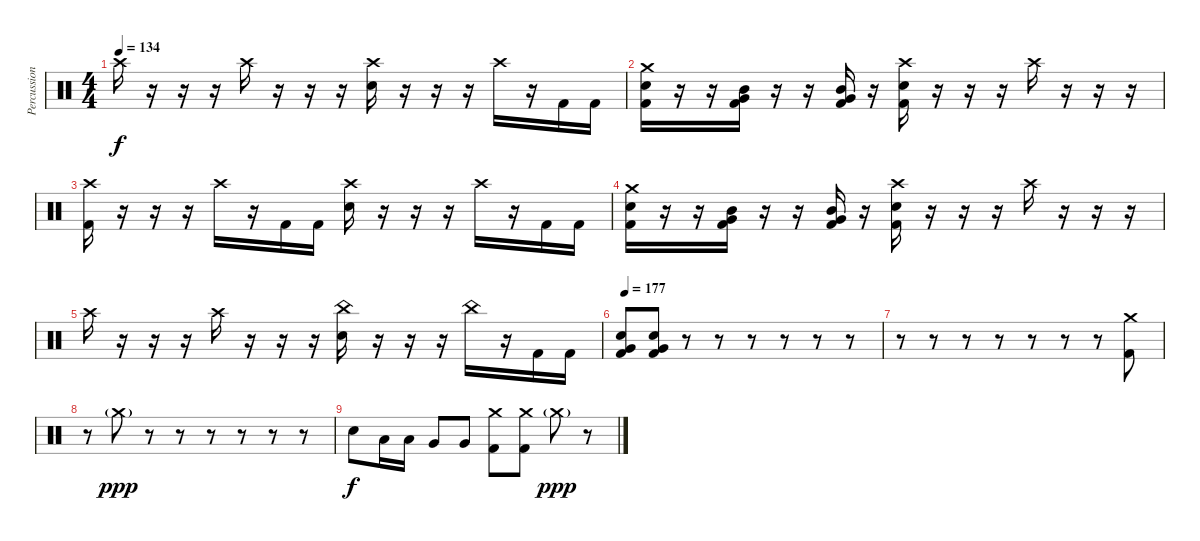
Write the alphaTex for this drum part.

\track ("Percussion" "Percussion") {instrument percussion}
\staff {score}
\articulation defaults
\ts (4 4)
\tempo 134
\clef neutral
\ks c "Crash high (hit)".16{dy f}
r.16 r.16 r.16 "Crash high (hit)".16 r.16 r.16 r.16 ("Crash high (hit)" "Snare (hit) 2").16 r.16 r.16 r.16 "Crash high (hit)".16 r.16 "Kick (hit) 2".16 "Kick (hit) 2".16 |
("Crash medium (hit)" "Snare (hit) 2" "Kick (hit) 2").16 r.16 r.16 ("Mid Tom (hit)" "Very Low Tom (hit)" "Kick (hit) 2").16 r.16 r.16 ("Mid Tom (hit)" "Very Low Tom (hit)" "Kick (hit) 2").16 r.16 ("Crash high (hit)" "Snare (hit) 2" "Kick (hit) 2").16 r.16 r.16 r.16 "Crash high (hit)".16 r.16 r.16 r.16 |
("Crash high (hit)" "Kick (hit) 2").16 r.16 r.16 r.16 "Crash high (hit)".16 r.16 "Kick (hit) 2".16 "Kick (hit) 2".16 ("Crash high (hit)" "Snare (hit) 2").16 r.16 r.16 r.16 "Crash high (hit)".16 r.16 "Kick (hit) 2".16 "Kick (hit) 2".16 |
("Crash medium (hit)" "Snare (hit) 2" "Kick (hit) 2").16 r.16 r.16 ("Mid Tom (hit)" "Very Low Tom (hit)" "Kick (hit) 2").16 r.16 r.16 ("Mid Tom (hit)" "Very Low Tom (hit)" "Kick (hit) 2").16 r.16 ("Crash high (hit)" "Snare (hit) 2" "Kick (hit) 2").16 r.16 r.16 r.16 "Crash high (hit)".16 r.16 r.16 r.16 |
"Crash high (hit)".16 r.16 r.16 r.16 "Crash high (hit)".16 r.16 r.16 r.16 ("China (hit)" "Snare (hit) 2").16 r.16 r.16 r.16 "China (hit)".16 r.16 "Kick (hit) 2".16 "Kick (hit) 2".16 |
\tempo 177
("Very Low Tom (hit)" "Snare (hit) 2" "Kick (hit) 2").8 ("Very Low Tom (hit)" "Snare (hit) 2" "Kick (hit) 2").8 r.8 r.8 r.8 r.8 r.8 r.8 |
r.8 r.8 r.8 r.8 r.8 r.8 r.8 ("Crash medium (hit)" "Kick (hit) 2").8 |
r.8 "Crash medium (hit)"{g}.8{dy ppp} r.8 r.8 r.8 r.8 r.8 r.8 |
"Snare (hit) 2".8{dy f} "Low Tom (hit)".16 "Low Tom (hit)".16 "Very Low Tom (hit)".8 "Very Low Tom (hit)".8 ("Crash medium (hit)" "Kick (hit) 2").8 ("Crash medium (hit)" "Kick (hit) 2").8 "Crash medium (hit)"{g}.8{dy ppp} r.8
